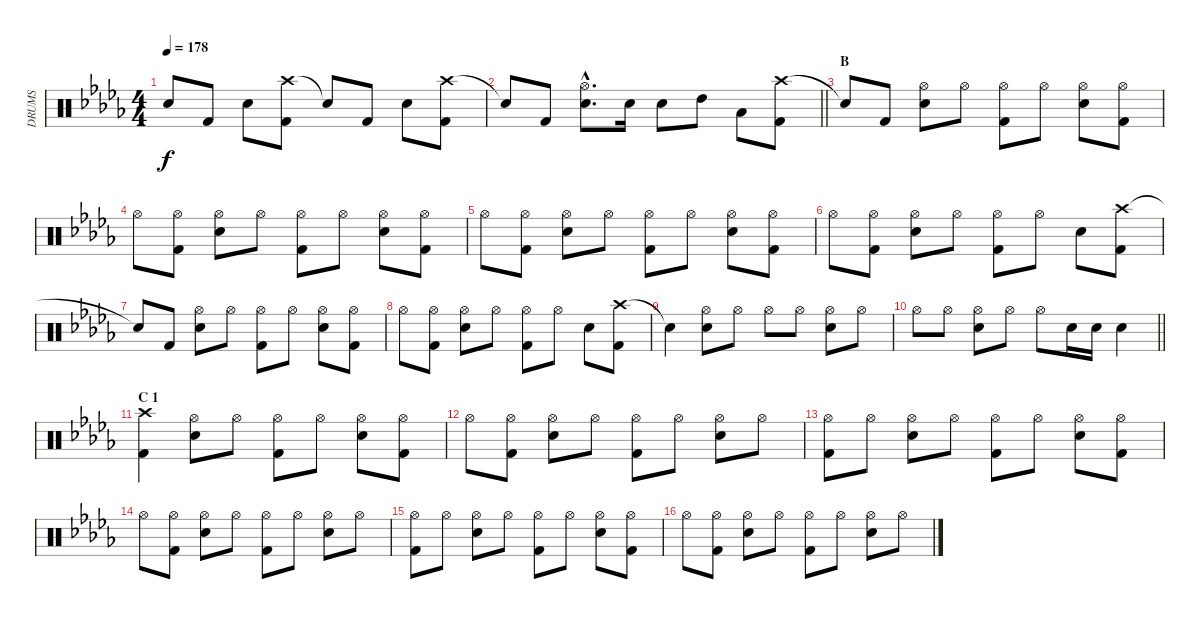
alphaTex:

\track ("DRUMS" "DRUMS") {instrument percussion}
\staff {score}
\articulation defaults
\ts (4 4)
\tempo 178
\clef neutral
\ks db "Snare (hit)"{t}.8{dy f} "Kick (hit) 2".8 "Snare (hit) 2".8
("Crash high (hit)" "Kick (hit) 2").8 "Snare (hit)"{t}.8 "Kick (hit) 2".8 "Snare (hit) 2".8 ("Crash high (hit)" "Kick (hit) 2").8 |
\barLineRight lightlight "Snare (hit)"{t}.8 "Kick (hit) 2".8
("Hi-Hat (open)"{hac} "Snare (hit) 2"{hac}).8{d} "Snare (hit) 2".16 "Snare (hit) 2".8 "High Tom (hit)".8 "Low Tom (hit)".8 ("Crash high (hit)" "Kick (hit) 2").8 |
\section ("" "B")
"Snare (hit)"{t}.8 "Kick (hit) 2".8 ("Hi-Hat (open)" "Snare (hit) 2").8 "Hi-Hat (open)".8 ("Hi-Hat (open)" "Kick (hit) 2").8 "Hi-Hat (open)".8 ("Hi-Hat (open)" "Snare (hit) 2").8 ("Hi-Hat (open)" "Kick (hit) 2").8 |
"Hi-Hat (open)".8 ("Hi-Hat (open)" "Kick (hit) 2").8 ("Hi-Hat (open)" "Snare (hit) 2").8 "Hi-Hat (open)".8 ("Hi-Hat (open)" "Kick (hit) 2").8 "Hi-Hat (open)".8 ("Hi-Hat (open)" "Snare (hit) 2").8 ("Hi-Hat (open)" "Kick (hit) 2").8 |
"Hi-Hat (open)".8 ("Hi-Hat (open)" "Kick (hit) 2").8 ("Hi-Hat (open)" "Snare (hit) 2").8 "Hi-Hat (open)".8 ("Hi-Hat (open)" "Kick (hit) 2").8 "Hi-Hat (open)".8 ("Hi-Hat (open)" "Snare (hit) 2").8 ("Hi-Hat (open)" "Kick (hit) 2").8 |
"Hi-Hat (open)".8 ("Hi-Hat (open)" "Kick (hit) 2").8 ("Hi-Hat (open)" "Snare (hit) 2").8 "Hi-Hat (open)".8 ("Hi-Hat (open)" "Kick (hit) 2").8 "Hi-Hat (open)".8 "Snare (hit) 2".8 ("Crash high (hit)" "Kick (hit) 2").8 |
"Snare (hit)"{t}.8 "Kick (hit) 2".8 ("Hi-Hat (open)" "Snare (hit) 2").8 "Hi-Hat (open)".8 ("Hi-Hat (open)" "Kick (hit) 2").8 "Hi-Hat (open)".8 ("Hi-Hat (open)" "Snare (hit) 2").8 ("Hi-Hat (open)" "Kick (hit) 2").8 |
"Hi-Hat (open)".8 ("Hi-Hat (open)" "Kick (hit) 2").8 ("Hi-Hat (open)" "Snare (hit) 2").8 "Hi-Hat (open)".8 ("Hi-Hat (open)" "Kick (hit) 2").8 "Hi-Hat (open)".8 "Snare (hit) 2".8 ("Crash high (hit)" "Kick (hit) 2").8 |
"Snare (hit)"{t}.4 ("Hi-Hat (open)" "Snare (hit) 2").8 "Hi-Hat (open)".8 "Hi-Hat (open)".8 "Hi-Hat (open)".8 ("Hi-Hat (open)" "Snare (hit) 2").8 "Hi-Hat (open)".8 |
\barLineRight lightlight "Hi-Hat (open)".8 "Hi-Hat (open)".8
("Hi-Hat (open)" "Snare (hit) 2").8 "Hi-Hat (open)".8 "Hi-Hat (open)".8 "Snare (hit) 2".16 "Snare (hit) 2".16 "Snare (hit) 2".4 |
\section ("" "C 1")
("Crash high (hit)" "Kick (hit) 2").4 ("Hi-Hat (open)" "Snare (hit) 2").8 "Hi-Hat (open)".8 ("Hi-Hat (open)" "Kick (hit) 2").8 "Hi-Hat (open)".8 ("Hi-Hat (open)" "Snare (hit) 2").8 ("Hi-Hat (open)" "Kick (hit) 2").8 |
"Hi-Hat (open)".8 ("Hi-Hat (open)" "Kick (hit) 2").8 ("Hi-Hat (open)" "Snare (hit) 2").8 "Hi-Hat (open)".8 ("Hi-Hat (open)" "Kick (hit) 2").8 "Hi-Hat (open)".8 ("Hi-Hat (open)" "Snare (hit) 2").8 "Hi-Hat (open)".8 |
("Hi-Hat (open)" "Kick (hit) 2").8 "Hi-Hat (open)".8 ("Hi-Hat (open)" "Snare (hit) 2").8 "Hi-Hat (open)".8 ("Hi-Hat (open)" "Kick (hit) 2").8 "Hi-Hat (open)".8 ("Hi-Hat (open)" "Snare (hit) 2").8 ("Hi-Hat (open)" "Kick (hit) 2").8 |
"Hi-Hat (open)".8 ("Hi-Hat (open)" "Kick (hit) 2").8 ("Hi-Hat (open)" "Snare (hit) 2").8 "Hi-Hat (open)".8 ("Hi-Hat (open)" "Kick (hit) 2").8 "Hi-Hat (open)".8 ("Hi-Hat (open)" "Snare (hit) 2").8 "Hi-Hat (open)".8 |
("Hi-Hat (open)" "Kick (hit) 2").8 "Hi-Hat (open)".8 ("Hi-Hat (open)" "Snare (hit) 2").8 "Hi-Hat (open)".8 ("Hi-Hat (open)" "Kick (hit) 2").8 "Hi-Hat (open)".8 ("Hi-Hat (open)" "Snare (hit) 2").8 ("Hi-Hat (open)" "Kick (hit) 2").8 |
"Hi-Hat (open)".8 ("Hi-Hat (open)" "Kick (hit) 2").8 ("Hi-Hat (open)" "Snare (hit) 2").8 "Hi-Hat (open)".8 ("Hi-Hat (open)" "Kick (hit) 2").8 "Hi-Hat (open)".8 ("Hi-Hat (open)" "Snare (hit) 2").8 "Hi-Hat (open)".8
